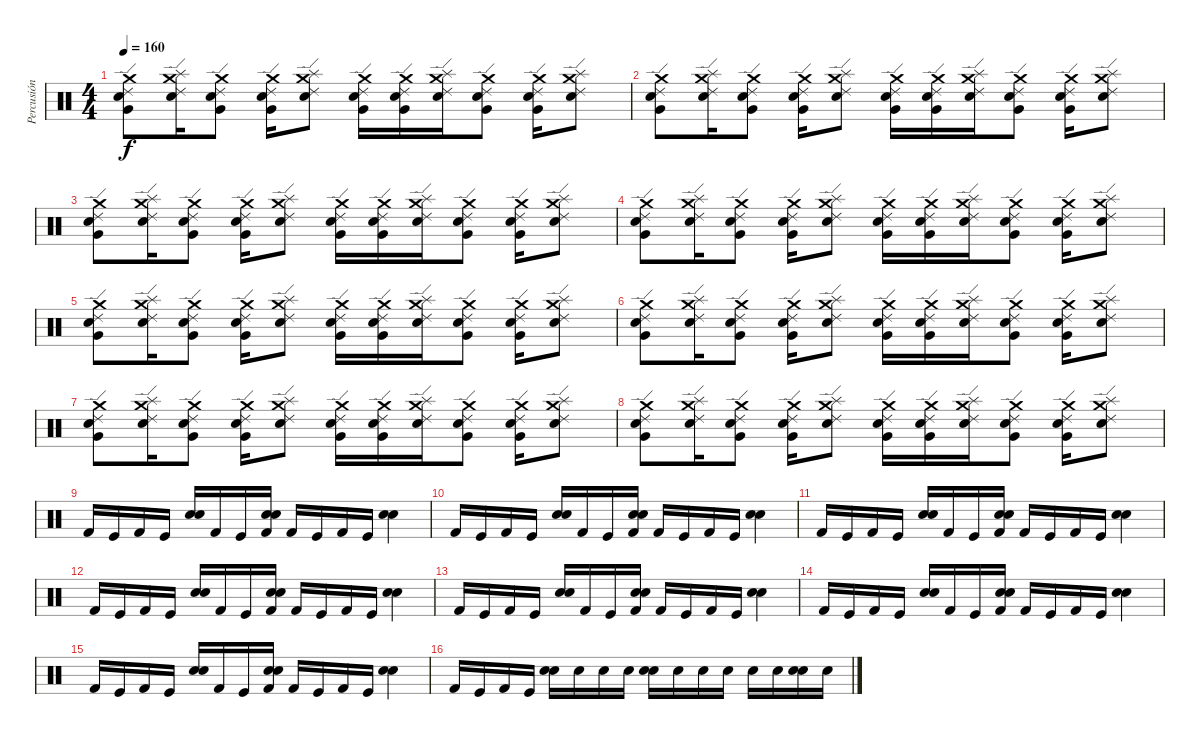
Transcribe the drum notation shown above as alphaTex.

\track ("Percusión" "Percusión") {instrument percussion}
\staff {score}
\articulation defaults
\ts (4 4)
\tempo 160
\clef neutral
\ks c
("Snare (hit) 2" "Very Low Tom (hit)" "Ride (edge) 2" "Crash medium (hit)").8{dy f} ("Electric Snare (hit)" "Splash (hit)" "Ride (edge) 2" "Crash medium (hit)").16 ("Snare (hit) 2" "Very Low Tom (hit)" "Ride (edge) 2" "Crash medium (hit)").8 ("Snare (hit) 2" "Very Low Tom (hit)" "Ride (edge) 2" "Crash medium (hit)").16 ("Electric Snare (hit)" "Splash (hit)" "Ride (edge) 2" "Crash medium (hit)").8 ("Snare (hit) 2" "Very Low Tom (hit)" "Ride (edge) 2" "Crash medium (hit)").16 ("Snare (hit) 2" "Very Low Tom (hit)" "Ride (edge) 2" "Crash medium (hit)").16 ("Splash (hit)" "Electric Snare (hit)" "Ride (edge) 2" "Crash medium (hit)").16 ("Snare (hit) 2" "Very Low Tom (hit)" "Ride (edge) 2" "Crash medium (hit)").8 ("Snare (hit) 2" "Very Low Tom (hit)" "Ride (edge) 2" "Crash medium (hit)").16 ("Electric Snare (hit)" "Splash (hit)" "Ride (edge) 2" "Crash medium (hit)").8 |
("Snare (hit) 2" "Very Low Tom (hit)" "Ride (edge) 2" "Crash medium (hit)").8 ("Electric Snare (hit)" "Splash (hit)" "Ride (edge) 2" "Crash medium (hit)").16 ("Snare (hit) 2" "Very Low Tom (hit)" "Ride (edge) 2" "Crash medium (hit)").8 ("Snare (hit) 2" "Very Low Tom (hit)" "Ride (edge) 2" "Crash medium (hit)").16 ("Electric Snare (hit)" "Splash (hit)" "Ride (edge) 2" "Crash medium (hit)").8 ("Snare (hit) 2" "Very Low Tom (hit)" "Ride (edge) 2" "Crash medium (hit)").16 ("Snare (hit) 2" "Very Low Tom (hit)" "Ride (edge) 2" "Crash medium (hit)").16 ("Splash (hit)" "Electric Snare (hit)" "Ride (edge) 2" "Crash medium (hit)").16 ("Snare (hit) 2" "Very Low Tom (hit)" "Ride (edge) 2" "Crash medium (hit)").8 ("Snare (hit) 2" "Very Low Tom (hit)" "Ride (edge) 2" "Crash medium (hit)").16 ("Electric Snare (hit)" "Splash (hit)" "Ride (edge) 2" "Crash medium (hit)").8 |
("Snare (hit) 2" "Very Low Tom (hit)" "Ride (edge) 2" "Crash medium (hit)").8 ("Electric Snare (hit)" "Splash (hit)" "Ride (edge) 2" "Crash medium (hit)").16 ("Snare (hit) 2" "Very Low Tom (hit)" "Ride (edge) 2" "Crash medium (hit)").8 ("Snare (hit) 2" "Very Low Tom (hit)" "Ride (edge) 2" "Crash medium (hit)").16 ("Electric Snare (hit)" "Splash (hit)" "Ride (edge) 2" "Crash medium (hit)").8 ("Snare (hit) 2" "Very Low Tom (hit)" "Ride (edge) 2" "Crash medium (hit)").16 ("Snare (hit) 2" "Very Low Tom (hit)" "Ride (edge) 2" "Crash medium (hit)").16 ("Splash (hit)" "Electric Snare (hit)" "Ride (edge) 2" "Crash medium (hit)").16 ("Snare (hit) 2" "Very Low Tom (hit)" "Ride (edge) 2" "Crash medium (hit)").8 ("Snare (hit) 2" "Very Low Tom (hit)" "Ride (edge) 2" "Crash medium (hit)").16 ("Electric Snare (hit)" "Splash (hit)" "Ride (edge) 2" "Crash medium (hit)").8 |
("Snare (hit) 2" "Very Low Tom (hit)" "Ride (edge) 2" "Crash medium (hit)").8 ("Electric Snare (hit)" "Splash (hit)" "Ride (edge) 2" "Crash medium (hit)").16 ("Snare (hit) 2" "Very Low Tom (hit)" "Ride (edge) 2" "Crash medium (hit)").8 ("Snare (hit) 2" "Very Low Tom (hit)" "Ride (edge) 2" "Crash medium (hit)").16 ("Electric Snare (hit)" "Splash (hit)" "Ride (edge) 2" "Crash medium (hit)").8 ("Snare (hit) 2" "Very Low Tom (hit)" "Ride (edge) 2" "Crash medium (hit)").16 ("Snare (hit) 2" "Very Low Tom (hit)" "Ride (edge) 2" "Crash medium (hit)").16 ("Splash (hit)" "Electric Snare (hit)" "Ride (edge) 2" "Crash medium (hit)").16 ("Snare (hit) 2" "Very Low Tom (hit)" "Ride (edge) 2" "Crash medium (hit)").8 ("Snare (hit) 2" "Very Low Tom (hit)" "Ride (edge) 2" "Crash medium (hit)").16 ("Electric Snare (hit)" "Splash (hit)" "Ride (edge) 2" "Crash medium (hit)").8 |
("Snare (hit) 2" "Very Low Tom (hit)" "Ride (edge) 2" "Crash medium (hit)").8 ("Electric Snare (hit)" "Splash (hit)" "Ride (edge) 2" "Crash medium (hit)").16 ("Snare (hit) 2" "Very Low Tom (hit)" "Ride (edge) 2" "Crash medium (hit)").8 ("Snare (hit) 2" "Very Low Tom (hit)" "Ride (edge) 2" "Crash medium (hit)").16 ("Electric Snare (hit)" "Splash (hit)" "Ride (edge) 2" "Crash medium (hit)").8 ("Snare (hit) 2" "Very Low Tom (hit)" "Ride (edge) 2" "Crash medium (hit)").16 ("Snare (hit) 2" "Very Low Tom (hit)" "Ride (edge) 2" "Crash medium (hit)").16 ("Splash (hit)" "Electric Snare (hit)" "Ride (edge) 2" "Crash medium (hit)").16 ("Snare (hit) 2" "Very Low Tom (hit)" "Ride (edge) 2" "Crash medium (hit)").8 ("Snare (hit) 2" "Very Low Tom (hit)" "Ride (edge) 2" "Crash medium (hit)").16 ("Electric Snare (hit)" "Splash (hit)" "Ride (edge) 2" "Crash medium (hit)").8 |
("Snare (hit) 2" "Very Low Tom (hit)" "Ride (edge) 2" "Crash medium (hit)").8 ("Electric Snare (hit)" "Splash (hit)" "Ride (edge) 2" "Crash medium (hit)").16 ("Snare (hit) 2" "Very Low Tom (hit)" "Ride (edge) 2" "Crash medium (hit)").8 ("Snare (hit) 2" "Very Low Tom (hit)" "Ride (edge) 2" "Crash medium (hit)").16 ("Electric Snare (hit)" "Splash (hit)" "Ride (edge) 2" "Crash medium (hit)").8 ("Snare (hit) 2" "Very Low Tom (hit)" "Ride (edge) 2" "Crash medium (hit)").16 ("Snare (hit) 2" "Very Low Tom (hit)" "Ride (edge) 2" "Crash medium (hit)").16 ("Splash (hit)" "Electric Snare (hit)" "Ride (edge) 2" "Crash medium (hit)").16 ("Snare (hit) 2" "Very Low Tom (hit)" "Ride (edge) 2" "Crash medium (hit)").8 ("Snare (hit) 2" "Very Low Tom (hit)" "Ride (edge) 2" "Crash medium (hit)").16 ("Electric Snare (hit)" "Splash (hit)" "Ride (edge) 2" "Crash medium (hit)").8 |
("Snare (hit) 2" "Very Low Tom (hit)" "Ride (edge) 2" "Crash medium (hit)").8 ("Electric Snare (hit)" "Splash (hit)" "Ride (edge) 2" "Crash medium (hit)").16 ("Snare (hit) 2" "Very Low Tom (hit)" "Ride (edge) 2" "Crash medium (hit)").8 ("Snare (hit) 2" "Very Low Tom (hit)" "Ride (edge) 2" "Crash medium (hit)").16 ("Electric Snare (hit)" "Splash (hit)" "Ride (edge) 2" "Crash medium (hit)").8 ("Snare (hit) 2" "Very Low Tom (hit)" "Ride (edge) 2" "Crash medium (hit)").16 ("Snare (hit) 2" "Very Low Tom (hit)" "Ride (edge) 2" "Crash medium (hit)").16 ("Splash (hit)" "Electric Snare (hit)" "Ride (edge) 2" "Crash medium (hit)").16 ("Snare (hit) 2" "Very Low Tom (hit)" "Ride (edge) 2" "Crash medium (hit)").8 ("Snare (hit) 2" "Very Low Tom (hit)" "Ride (edge) 2" "Crash medium (hit)").16 ("Electric Snare (hit)" "Splash (hit)" "Ride (edge) 2" "Crash medium (hit)").8 |
("Snare (hit) 2" "Very Low Tom (hit)" "Ride (edge) 2" "Crash medium (hit)").8 ("Electric Snare (hit)" "Splash (hit)" "Ride (edge) 2" "Crash medium (hit)").16 ("Snare (hit) 2" "Very Low Tom (hit)" "Ride (edge) 2" "Crash medium (hit)").8 ("Snare (hit) 2" "Very Low Tom (hit)" "Ride (edge) 2" "Crash medium (hit)").16 ("Electric Snare (hit)" "Splash (hit)" "Ride (edge) 2" "Crash medium (hit)").8 ("Snare (hit) 2" "Very Low Tom (hit)" "Ride (edge) 2" "Crash medium (hit)").16 ("Snare (hit) 2" "Very Low Tom (hit)" "Ride (edge) 2" "Crash medium (hit)").16 ("Splash (hit)" "Electric Snare (hit)" "Ride (edge) 2" "Crash medium (hit)").16 ("Snare (hit) 2" "Very Low Tom (hit)" "Ride (edge) 2" "Crash medium (hit)").8 ("Snare (hit) 2" "Very Low Tom (hit)" "Ride (edge) 2" "Crash medium (hit)").16 ("Electric Snare (hit)" "Splash (hit)" "Ride (edge) 2" "Crash medium (hit)").8 |
"Kick (hit) 2".16 "Kick (hit)".16 "Kick (hit) 2".16 "Kick (hit)".16 ("Snare (hit) 2" "Electric Snare (hit)").16 "Kick (hit) 2".16 "Kick (hit)".16 ("Kick (hit) 2" "Snare (hit) 2" "Electric Snare (hit)").16 "Kick (hit) 2".16 "Kick (hit)".16 "Kick (hit) 2".16 "Kick (hit)".16 ("Electric Snare (hit)" "Snare (hit) 2").4 |
"Kick (hit) 2".16 "Kick (hit)".16 "Kick (hit) 2".16 "Kick (hit)".16 ("Snare (hit) 2" "Electric Snare (hit)").16 "Kick (hit) 2".16 "Kick (hit)".16 ("Kick (hit) 2" "Snare (hit) 2" "Electric Snare (hit)").16 "Kick (hit) 2".16 "Kick (hit)".16 "Kick (hit) 2".16 "Kick (hit)".16 ("Electric Snare (hit)" "Snare (hit) 2").4 |
"Kick (hit) 2".16 "Kick (hit)".16 "Kick (hit) 2".16 "Kick (hit)".16 ("Snare (hit) 2" "Electric Snare (hit)").16 "Kick (hit) 2".16 "Kick (hit)".16 ("Kick (hit) 2" "Snare (hit) 2" "Electric Snare (hit)").16 "Kick (hit) 2".16 "Kick (hit)".16 "Kick (hit) 2".16 "Kick (hit)".16 ("Electric Snare (hit)" "Snare (hit) 2").4 |
"Kick (hit) 2".16 "Kick (hit)".16 "Kick (hit) 2".16 "Kick (hit)".16 ("Snare (hit) 2" "Electric Snare (hit)").16 "Kick (hit) 2".16 "Kick (hit)".16 ("Kick (hit) 2" "Snare (hit) 2" "Electric Snare (hit)").16 "Kick (hit) 2".16 "Kick (hit)".16 "Kick (hit) 2".16 "Kick (hit)".16 ("Electric Snare (hit)" "Snare (hit) 2").4 |
"Kick (hit) 2".16 "Kick (hit)".16 "Kick (hit) 2".16 "Kick (hit)".16 ("Snare (hit) 2" "Electric Snare (hit)").16 "Kick (hit) 2".16 "Kick (hit)".16 ("Kick (hit) 2" "Snare (hit) 2" "Electric Snare (hit)").16 "Kick (hit) 2".16 "Kick (hit)".16 "Kick (hit) 2".16 "Kick (hit)".16 ("Electric Snare (hit)" "Snare (hit) 2").4 |
"Kick (hit) 2".16 "Kick (hit)".16 "Kick (hit) 2".16 "Kick (hit)".16 ("Snare (hit) 2" "Electric Snare (hit)").16 "Kick (hit) 2".16 "Kick (hit)".16 ("Kick (hit) 2" "Snare (hit) 2" "Electric Snare (hit)").16 "Kick (hit) 2".16 "Kick (hit)".16 "Kick (hit) 2".16 "Kick (hit)".16 ("Electric Snare (hit)" "Snare (hit) 2").4 |
"Kick (hit) 2".16 "Kick (hit)".16 "Kick (hit) 2".16 "Kick (hit)".16 ("Snare (hit) 2" "Electric Snare (hit)").16 "Kick (hit) 2".16 "Kick (hit)".16 ("Kick (hit) 2" "Snare (hit) 2" "Electric Snare (hit)").16 "Kick (hit) 2".16 "Kick (hit)".16 "Kick (hit) 2".16 "Kick (hit)".16 ("Electric Snare (hit)" "Snare (hit) 2").4 |
"Kick (hit) 2".16 "Kick (hit)".16 "Kick (hit) 2".16 "Kick (hit)".16 ("Snare (hit) 2" "Electric Snare (hit)").16 "Snare (hit) 2".16 "Electric Snare (hit)".16 "Snare (hit) 2".16 ("Snare (hit) 2" "Electric Snare (hit)").16 "Snare (hit) 2".16 "Electric Snare (hit)".16 "Snare (hit) 2".16 "Electric Snare (hit)".16 "Snare (hit) 2".16 ("Snare (hit) 2" "Electric Snare (hit)").16 "Snare (hit) 2".16
